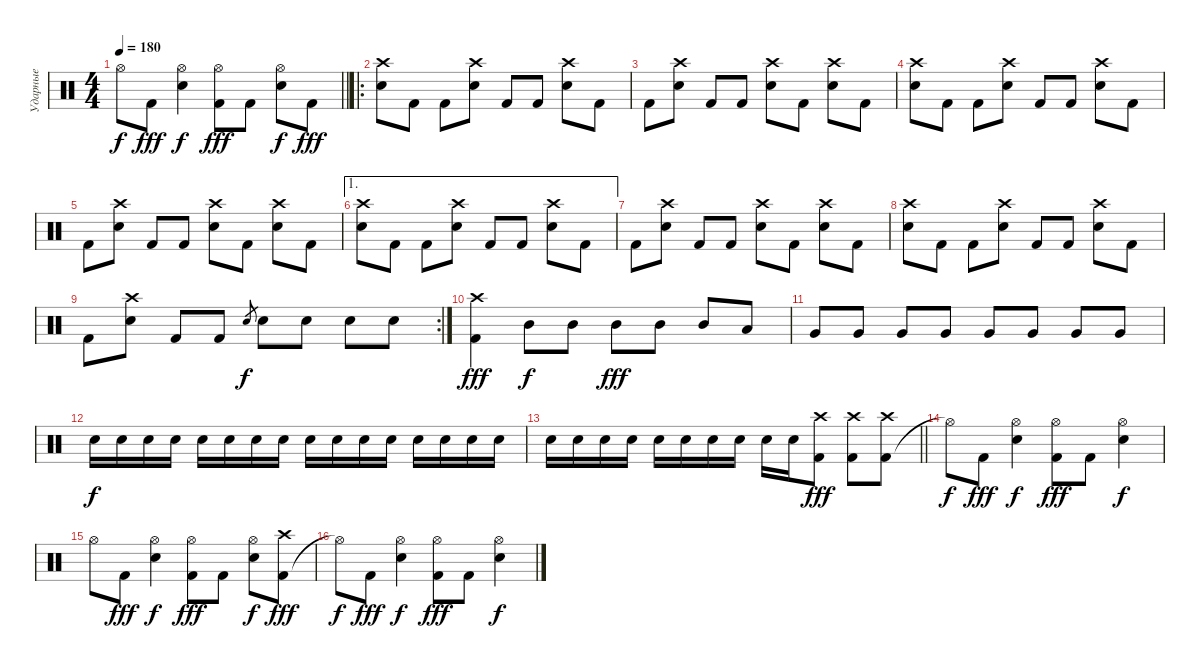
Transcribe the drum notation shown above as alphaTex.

\track ("Ударные" "Ударные") {instrument percussion}
\staff
\articulation defaults
\ts (4 4)
\tempo 180
\clef neutral
\barLineRight lightlight
\ks c "Hi-Hat (open)".8{dy f} "Kick (hit) 2".8{dy fff}
("Snare (hit) 2" "Hi-Hat (open)").4{dy f} ("Kick (hit) 2" "Hi-Hat (open)").8{dy fff} "Kick (hit) 2".8 ("Snare (hit) 2" "Hi-Hat (open)").8{dy f} "Kick (hit) 2".8{dy fff} |
\ro
("Snare (hit) 2" "Crash high (hit)").8 "Kick (hit) 2".8 "Kick (hit) 2".8 ("Snare (hit) 2" "Crash high (hit)").8 "Kick (hit) 2".8 "Kick (hit) 2".8 ("Snare (hit) 2" "Crash high (hit)").8 "Kick (hit) 2".8 |
"Kick (hit) 2".8 ("Snare (hit) 2" "Crash high (hit)").8 "Kick (hit) 2".8 "Kick (hit) 2".8 ("Snare (hit) 2" "Crash high (hit)").8 "Kick (hit) 2".8 ("Snare (hit) 2" "Crash high (hit)").8 "Kick (hit) 2".8 |
("Snare (hit) 2" "Crash high (hit)").8 "Kick (hit) 2".8 "Kick (hit) 2".8 ("Snare (hit) 2" "Crash high (hit)").8 "Kick (hit) 2".8 "Kick (hit) 2".8 ("Snare (hit) 2" "Crash high (hit)").8 "Kick (hit) 2".8 |
"Kick (hit) 2".8 ("Snare (hit) 2" "Crash high (hit)").8 "Kick (hit) 2".8 "Kick (hit) 2".8 ("Snare (hit) 2" "Crash high (hit)").8 "Kick (hit) 2".8 ("Snare (hit) 2" "Crash high (hit)").8 "Kick (hit) 2".8 |
\ae 1
("Snare (hit) 2" "Crash high (hit)").8 "Kick (hit) 2".8 "Kick (hit) 2".8 ("Snare (hit) 2" "Crash high (hit)").8 "Kick (hit) 2".8 "Kick (hit) 2".8 ("Snare (hit) 2" "Crash high (hit)").8 "Kick (hit) 2".8 |
"Kick (hit) 2".8 ("Snare (hit) 2" "Crash high (hit)").8 "Kick (hit) 2".8 "Kick (hit) 2".8 ("Snare (hit) 2" "Crash high (hit)").8 "Kick (hit) 2".8 ("Snare (hit) 2" "Crash high (hit)").8 "Kick (hit) 2".8 |
("Snare (hit) 2" "Crash high (hit)").8 "Kick (hit) 2".8 "Kick (hit) 2".8 ("Snare (hit) 2" "Crash high (hit)").8 "Kick (hit) 2".8 "Kick (hit) 2".8 ("Snare (hit) 2" "Crash high (hit)").8 "Kick (hit) 2".8 |
\rc 2 "Kick (hit) 2".8
("Snare (hit) 2" "Crash high (hit)").8 "Kick (hit) 2".8 "Kick (hit) 2".8 "Electric Snare (hit)".8{gr dy f} "Electric Snare (hit)".8 "Electric Snare (hit)".8 "Electric Snare (hit)".8 "Electric Snare (hit)".8 |
("Kick (hit) 2" "Crash high (hit)").4{dy fff} "Mid Tom (hit)".8{dy f} "Mid Tom (hit)".8 "Mid Tom (hit)".8{dy fff} "Mid Tom (hit)".8 "Mid Tom (hit)".8 "Low Tom (hit)".8 |
"Very Low Tom (hit)".8 "Very Low Tom (hit)".8 "Very Low Tom (hit)".8 "Very Low Tom (hit)".8 "Very Low Tom (hit)".8 "Very Low Tom (hit)".8 "Very Low Tom (hit)".8 "Very Low Tom (hit)".8 |
"Snare (hit) 2".16{dy f} "Snare (hit) 2".16 "Snare (hit) 2".16 "Snare (hit) 2".16 "Snare (hit) 2".16 "Snare (hit) 2".16 "Snare (hit) 2".16 "Snare (hit) 2".16 "Snare (hit) 2".16 "Snare (hit) 2".16 "Snare (hit) 2".16 "Snare (hit) 2".16 "Snare (hit) 2".16 "Snare (hit) 2".16 "Snare (hit) 2".16 "Snare (hit) 2".16 |
\barLineRight lightlight "Snare (hit) 2".16 "Snare (hit) 2".16 "Snare (hit) 2".16 "Snare (hit) 2".16 "Snare (hit) 2".16 "Snare (hit) 2".16 "Snare (hit) 2".16 "Snare (hit) 2".16 "Snare (hit) 2".16 "Snare (hit) 2".16
("Kick (hit) 2" "Crash high (hit)").8{dy fff} ("Kick (hit) 2" "Crash high (hit)").8 ("Kick (hit) 2" "Crash high (hit)").8 |
"Hi-Hat (open)"{t}.8{dy f} "Kick (hit) 2".8{dy fff} ("Snare (hit) 2" "Hi-Hat (open)").4{dy f} ("Kick (hit) 2" "Hi-Hat (open)").8{dy fff} "Kick (hit) 2".8 ("Snare (hit) 2" "Hi-Hat (open)").4{dy f} |
"Hi-Hat (open)".8 "Kick (hit) 2".8{dy fff} ("Snare (hit) 2" "Hi-Hat (open)").4{dy f} ("Kick (hit) 2" "Hi-Hat (open)").8{dy fff} "Kick (hit) 2".8 ("Snare (hit) 2" "Hi-Hat (open)").8{dy f} ("Kick (hit) 2" "Crash high (hit)").8{dy fff} |
"Hi-Hat (open)"{t}.8{dy f} "Kick (hit) 2".8{dy fff} ("Snare (hit) 2" "Hi-Hat (open)").4{dy f} ("Kick (hit) 2" "Hi-Hat (open)").8{dy fff} "Kick (hit) 2".8 ("Snare (hit) 2" "Hi-Hat (open)").4{dy f}
